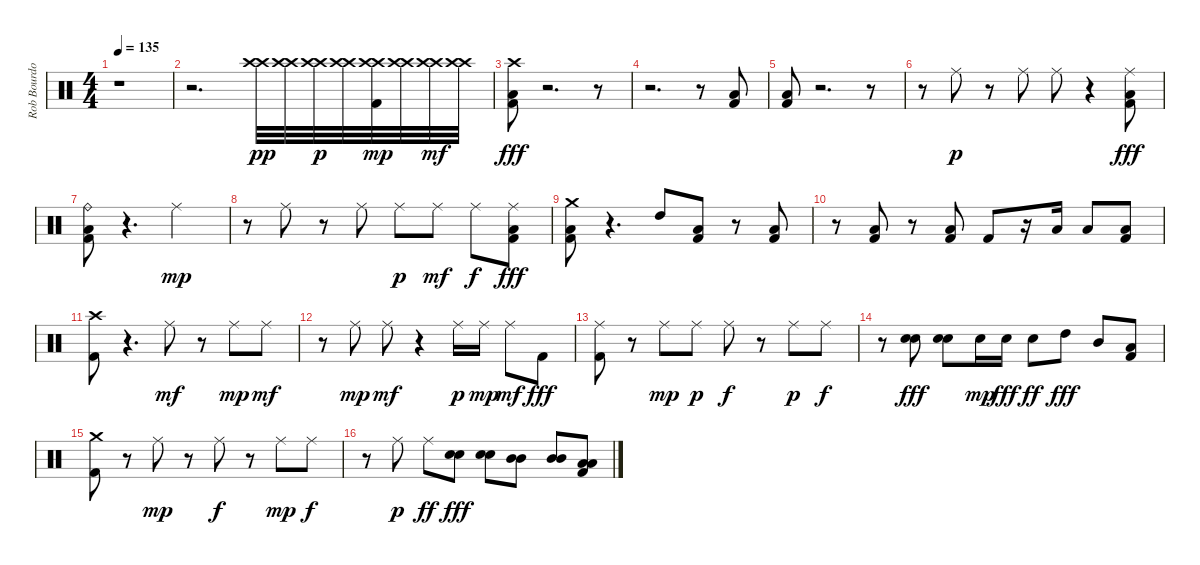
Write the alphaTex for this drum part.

\track ("Rob Bourdon - Beats & Drums" "Rob Bourdo") {instrument percussion}
\staff {score}
\articulation defaults
\ts (4 4)
\tempo 135
\clef neutral
\ks c
r.1{dy f} |
r.2{d} ("Crash high (hit)" "Crash high (hit)").32{dy pp} ("Crash high (hit)" "Crash high (hit)").32 ("Crash high (hit)" "Crash high (hit)").32{dy p} ("Crash high (hit)" "Crash high (hit)").32 ("Crash high (hit)" "Kick (hit) 2" "Crash high (hit)").32{dy mp} ("Crash high (hit)" "Crash high (hit)").32 ("Crash high (hit)" "Crash high (hit)").32{dy mf} ("Crash high (hit)" "Crash high (hit)").32 |
("Crash high (hit)" "Low Floor Tom (hit)" "Kick (hit) 2").8{dy fff} r.2{d} r.8 |
r.2{d} r.8 ("Low Floor Tom (hit)" "Kick (hit) 2").8 |
("Low Floor Tom (hit)" "Kick (hit) 2").8 r.2{d} r.8 |
r.8 "Ride (middle)".8{dy p} r.8 "Ride (middle)".8 "Ride (middle)".8 r.4 ("Ride (middle)" "Low Floor Tom (hit)" "Kick (hit) 2").8{dy fff} |
("Ride (bell)" "Low Floor Tom (hit)" "Kick (hit) 2").8 r.4{d} "Ride (middle)".2{dy mp} |
r.8 "Ride (middle)".8 r.8 "Ride (middle)".8 "Ride (middle)".8{dy p} "Ride (middle)".8{dy mf} "Ride (middle)".8{dy f} ("Ride (middle)" "Low Floor Tom (hit)" "Kick (hit) 2").8{dy fff} |
("Crash medium (hit)" "Low Floor Tom (hit)" "Kick (hit) 2").8 r.4{d} "High Tom (hit)".8 ("Low Tom (hit)" "Kick (hit) 2").8 r.8 ("Low Tom (hit)" "Kick (hit) 2").8 |
r.8 ("Low Tom (hit)" "Kick (hit) 2").8 r.8 ("Low Tom (hit)" "Kick (hit) 2").8 "Kick (hit) 2".8 r.16 "Low Tom (hit)".16 "Low Tom (hit)".8 ("Low Tom (hit)" "Kick (hit) 2").8 |
("Crash high (hit)" "Kick (hit) 2").8 r.4{d} "Ride (middle)".8{dy mf} r.8 "Ride (middle)".8{dy mp} "Ride (middle)".8{dy mf} |
r.8 "Ride (middle)".8{dy mp} "Ride (middle)".8{dy mf} r.4 "Ride (middle)".16{dy p} "Ride (middle)".16{dy mp} "Ride (middle)".8{dy mf} "Kick (hit) 2".8{dy fff} |
("Ride (middle)" "Kick (hit) 2").8 r.8 "Ride (middle)".8{dy mp} "Ride (middle)".8{dy p} "Ride (middle)".8{dy f} r.8 "Ride (middle)".8{dy p} "Ride (middle)".8{dy f} |
r.8 ("Electric Snare (hit)" "Electric Snare (hit)").8{dy fff} ("Electric Snare (hit)" "Electric Snare (hit)").8 "Electric Snare (hit)".16{dy mp} "Electric Snare (hit)".16{dy fff} "Electric Snare (hit)".8{dy ff} "High Tom (hit)".8{dy fff} "Mid Tom (hit)".8 ("Low Tom (hit)" "Kick (hit) 2").8 |
("Crash medium (hit)" "Kick (hit) 2").8 r.8 "Ride (middle)".8{dy mp} r.8 "Ride (middle)".8{dy f} r.8 "Ride (middle)".8{dy mp} "Ride (middle)".8{dy f} |
r.8 "Ride (middle)".8{dy p} "Ride (middle)".8{dy ff} ("Electric Snare (hit)" "Electric Snare (hit)").8{dy fff} ("Electric Snare (hit)" "Electric Snare (hit)").8 ("Mid Tom (hit)" "Mid Tom (hit)").8 ("Mid Tom (hit)" "Mid Tom (hit)").8 ("Low Tom (hit)" "Low Tom (hit)" "Kick (hit) 2").8
